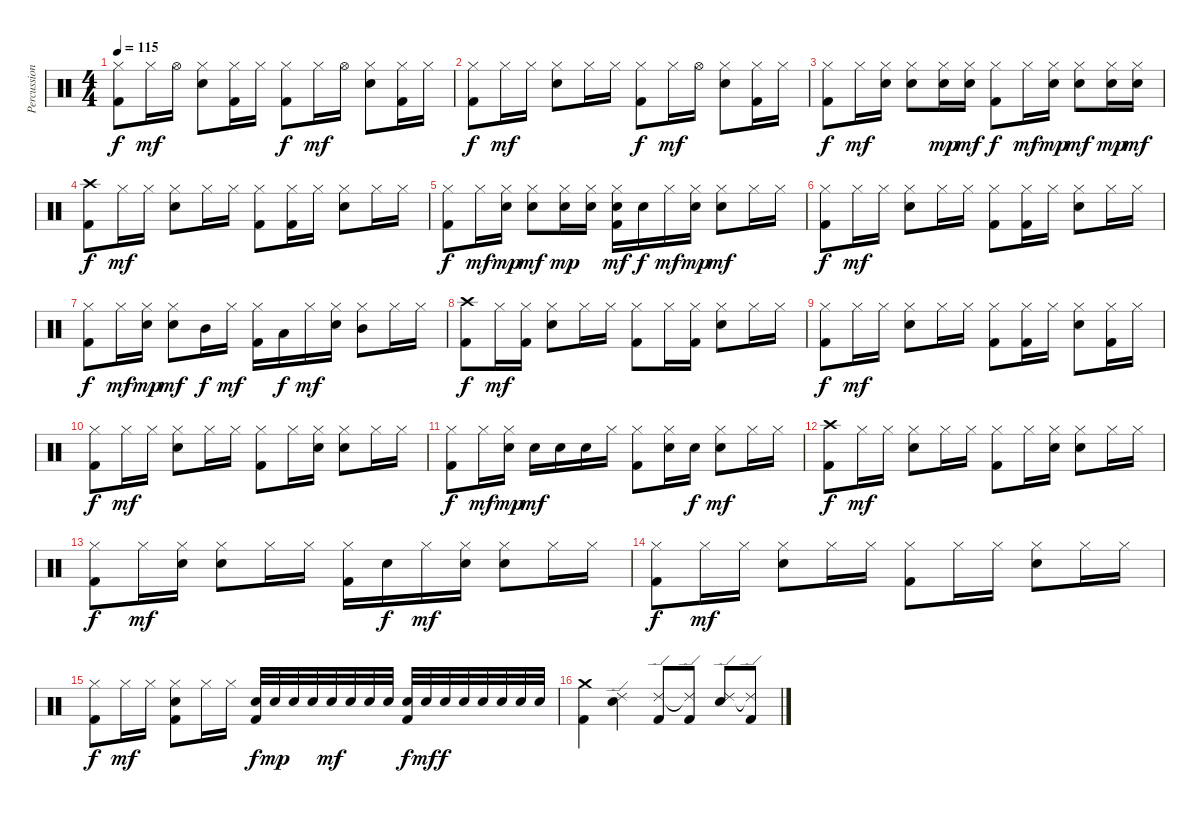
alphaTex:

\track ("Percussion" "Percussion") {instrument percussion}
\staff {score}
\articulation defaults
\ts (4 4)
\tempo 115
\clef neutral
\ks c
("Hi-Hat (closed)" "Kick (hit) 2").8{dy f} "Hi-Hat (closed)".16{dy mf} "Hi-Hat (open)".16 ("Hi-Hat (closed)" "Electric Snare (hit)").8 ("Hi-Hat (closed)" "Kick (hit) 2").16 "Hi-Hat (closed)".16 ("Hi-Hat (closed)" "Kick (hit) 2").8{dy f} "Hi-Hat (closed)".16{dy mf} "Hi-Hat (open)".16 ("Hi-Hat (closed)" "Electric Snare (hit)").8 ("Hi-Hat (closed)" "Kick (hit) 2").16 "Hi-Hat (closed)".16 |
("Hi-Hat (closed)" "Kick (hit) 2").8{dy f} "Hi-Hat (closed)".16{dy mf} "Hi-Hat (closed)".16 ("Hi-Hat (closed)" "Electric Snare (hit)").8 "Hi-Hat (closed)".16 "Hi-Hat (closed)".16 ("Hi-Hat (closed)" "Kick (hit) 2").8{dy f} "Hi-Hat (closed)".16{dy mf} "Hi-Hat (open)".16 ("Hi-Hat (closed)" "Electric Snare (hit)").8 ("Hi-Hat (closed)" "Kick (hit) 2").16 "Hi-Hat (closed)".16 |
("Hi-Hat (closed)" "Kick (hit) 2").8{dy f} "Hi-Hat (closed)".16{dy mf} ("Hi-Hat (closed)" "Electric Snare (hit)").16 ("Hi-Hat (closed)" "Electric Snare (hit)").8 ("Hi-Hat (closed)" "Electric Snare (hit)").16{dy mp} ("Hi-Hat (closed)" "Electric Snare (hit)").16{dy mf} ("Hi-Hat (closed)" "Kick (hit) 2").8{dy f} "Hi-Hat (closed)".16{dy mf} ("Hi-Hat (closed)" "Electric Snare (hit)").16{dy mp} ("Hi-Hat (closed)" "Electric Snare (hit)").8{dy mf} ("Hi-Hat (closed)" "Electric Snare (hit)").16{dy mp} ("Hi-Hat (closed)" "Electric Snare (hit)").16{dy mf} |
("Crash high (hit)" "Kick (hit) 2").8{dy f} "Hi-Hat (closed)".16{dy mf} "Hi-Hat (closed)".16 ("Hi-Hat (closed)" "Electric Snare (hit)").8 "Hi-Hat (closed)".16 "Hi-Hat (closed)".16 ("Hi-Hat (closed)" "Kick (hit) 2").8 ("Hi-Hat (closed)" "Kick (hit) 2").16 "Hi-Hat (closed)".16 ("Hi-Hat (closed)" "Electric Snare (hit)").8 "Hi-Hat (closed)".16 "Hi-Hat (closed)".16 |
("Hi-Hat (closed)" "Kick (hit) 2").8{dy f} "Hi-Hat (closed)".16{dy mf} ("Hi-Hat (closed)" "Electric Snare (hit)").16{dy mp} ("Hi-Hat (closed)" "Electric Snare (hit)").8{dy mf} ("Hi-Hat (closed)" "Electric Snare (hit)").16{dy mp} ("Hi-Hat (closed)" "Electric Snare (hit)").16 ("Hi-Hat (closed)" "Electric Snare (hit)" "Kick (hit) 2").16{dy mf} "Electric Snare (hit)".16{dy f} "Hi-Hat (closed)".16{dy mf} ("Hi-Hat (closed)" "Electric Snare (hit)").16{dy mp} ("Hi-Hat (closed)" "Electric Snare (hit)").8{dy mf} "Hi-Hat (closed)".16 "Hi-Hat (closed)".16 |
("Hi-Hat (closed)" "Kick (hit) 2").8{dy f} "Hi-Hat (closed)".16{dy mf} "Hi-Hat (closed)".16 ("Hi-Hat (closed)" "Electric Snare (hit)").8 "Hi-Hat (closed)".16 "Hi-Hat (closed)".16 ("Hi-Hat (closed)" "Kick (hit) 2").8 ("Hi-Hat (closed)" "Kick (hit) 2").16 "Hi-Hat (closed)".16 ("Hi-Hat (closed)" "Electric Snare (hit)").8 "Hi-Hat (closed)".16 "Hi-Hat (closed)".16 |
("Hi-Hat (closed)" "Kick (hit) 2").8{dy f} "Hi-Hat (closed)".16{dy mf} ("Hi-Hat (closed)" "Electric Snare (hit)").16{dy mp} ("Hi-Hat (closed)" "Electric Snare (hit)").8{dy mf} "Mid Tom (hit)".16{dy f} "Hi-Hat (closed)".16{dy mf} ("Hi-Hat (closed)" "Kick (hit) 2").16 "Low Tom (hit)".16{dy f} "Hi-Hat (closed)".16{dy mf} ("Hi-Hat (closed)" "Electric Snare (hit)").16 ("Mid Tom (hit)" "Hi-Hat (closed)").8 "Hi-Hat (closed)".16 "Hi-Hat (closed)".16 |
("Crash high (hit)" "Kick (hit) 2").8{dy f} "Hi-Hat (closed)".16{dy mf} ("Hi-Hat (closed)" "Kick (hit) 2").16 ("Hi-Hat (closed)" "Electric Snare (hit)").8 "Hi-Hat (closed)".16 "Hi-Hat (closed)".16 ("Hi-Hat (closed)" "Kick (hit) 2").8 "Hi-Hat (closed)".16 ("Hi-Hat (closed)" "Kick (hit) 2").16 ("Hi-Hat (closed)" "Electric Snare (hit)").8 "Hi-Hat (closed)".16 "Hi-Hat (closed)".16 |
("Hi-Hat (closed)" "Kick (hit) 2").8{dy f} "Hi-Hat (closed)".16{dy mf} "Hi-Hat (closed)".16 ("Hi-Hat (closed)" "Electric Snare (hit)").8 "Hi-Hat (closed)".16 "Hi-Hat (closed)".16 ("Hi-Hat (closed)" "Kick (hit) 2").8 ("Hi-Hat (closed)" "Kick (hit) 2").16 "Hi-Hat (closed)".16 ("Hi-Hat (closed)" "Electric Snare (hit)").8 ("Hi-Hat (closed)" "Kick (hit) 2").16 "Hi-Hat (closed)".16 |
("Hi-Hat (closed)" "Kick (hit) 2").8{dy f} "Hi-Hat (closed)".16{dy mf} "Hi-Hat (closed)".16 ("Hi-Hat (closed)" "Electric Snare (hit)").8 "Hi-Hat (closed)".16 "Hi-Hat (closed)".16 ("Hi-Hat (closed)" "Kick (hit) 2").8 "Hi-Hat (closed)".16 ("Hi-Hat (closed)" "Electric Snare (hit)").16 ("Hi-Hat (closed)" "Electric Snare (hit)").8 "Hi-Hat (closed)".16 "Hi-Hat (closed)".16 |
("Hi-Hat (closed)" "Kick (hit) 2").8{dy f} "Hi-Hat (closed)".16{dy mf} ("Hi-Hat (closed)" "Electric Snare (hit)").16{dy mp} "Electric Snare (hit)".16{dy mf} "Electric Snare (hit)".16 "Electric Snare (hit)".16 "Hi-Hat (closed)".16 ("Hi-Hat (closed)" "Kick (hit) 2").8 ("Hi-Hat (closed)" "Electric Snare (hit)").16 "Electric Snare (hit)".16{dy f} ("Hi-Hat (closed)" "Electric Snare (hit)").8{dy mf} "Hi-Hat (closed)".16 "Hi-Hat (closed)".16 |
("Crash high (hit)" "Kick (hit) 2").8{dy f} "Hi-Hat (closed)".16{dy mf} "Hi-Hat (closed)".16 ("Hi-Hat (closed)" "Electric Snare (hit)").8 "Hi-Hat (closed)".16 "Hi-Hat (closed)".16 ("Hi-Hat (closed)" "Kick (hit) 2").8 "Hi-Hat (closed)".16 ("Hi-Hat (closed)" "Electric Snare (hit)").16 ("Hi-Hat (closed)" "Electric Snare (hit)").8 "Hi-Hat (closed)".16 "Hi-Hat (closed)".16 |
("Hi-Hat (closed)" "Kick (hit) 2").8{dy f} "Hi-Hat (closed)".16{dy mf} ("Hi-Hat (closed)" "Electric Snare (hit)").16 ("Hi-Hat (closed)" "Electric Snare (hit)").8 "Hi-Hat (closed)".16 "Hi-Hat (closed)".16 ("Hi-Hat (closed)" "Kick (hit) 2").16 "Electric Snare (hit)".16{dy f} "Hi-Hat (closed)".16{dy mf} ("Hi-Hat (closed)" "Electric Snare (hit)").16 ("Hi-Hat (closed)" "Electric Snare (hit)").8 "Hi-Hat (closed)".16 "Hi-Hat (closed)".16 |
("Hi-Hat (closed)" "Kick (hit) 2").8{dy f} "Hi-Hat (closed)".16{dy mf} "Hi-Hat (closed)".16 ("Hi-Hat (closed)" "Electric Snare (hit)").8 "Hi-Hat (closed)".16 "Hi-Hat (closed)".16 ("Hi-Hat (closed)" "Kick (hit) 2").8 "Hi-Hat (closed)".16 "Hi-Hat (closed)".16 ("Hi-Hat (closed)" "Electric Snare (hit)").8 "Hi-Hat (closed)".16 "Hi-Hat (closed)".16 |
("Hi-Hat (closed)" "Kick (hit) 2").8{dy f} "Hi-Hat (closed)".16{dy mf} "Hi-Hat (closed)".16 ("Hi-Hat (closed)" "Electric Snare (hit)" "Kick (hit) 2").8 "Hi-Hat (closed)".16 "Hi-Hat (closed)".16 ("Electric Snare (hit)" "Kick (hit) 2").32{dy f} "Electric Snare (hit)".32{dy mp} "Electric Snare (hit)".32 "Electric Snare (hit)".32 "Electric Snare (hit)".32{dy mf} "Electric Snare (hit)".32 "Electric Snare (hit)".32 "Electric Snare (hit)".32 ("Electric Snare (hit)" "Kick (hit) 2").32{dy f} "Electric Snare (hit)".32{dy mf} "Electric Snare (hit)".32{dy f} "Electric Snare (hit)".32 "Electric Snare (hit)".32 "Electric Snare (hit)".32 "Electric Snare (hit)".32 "Electric Snare (hit)".32 |
("Crash medium (hit)" "Kick (hit) 2").4 ("Ride (edge) 2" "Electric Snare (hit)").4 ("Ride (edge) 2" "Kick (hit) 2").8 ("Ride (edge) 2"{t} "Kick (hit) 2").8 ("Ride (edge) 2" "Electric Snare (hit)").8 ("Ride (edge) 2"{t} "Kick (hit) 2").8
